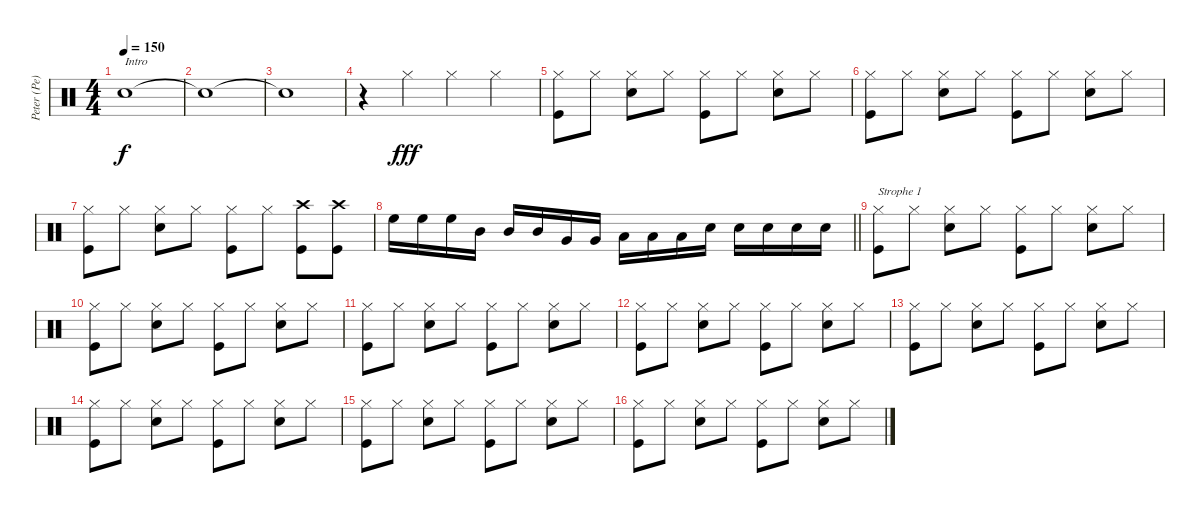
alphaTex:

\track ("Peter (Pe) Schorowsky" "Peter (Pe)") {instrument percussion}
\staff {score}
\articulation defaults
\ts (4 4)
\tempo 150
\clef neutral
\ks c "Snare (hit)".1{txt "Intro" dy f}
|
"Snare (hit)"{t}.1 |
"Snare (hit)"{t}.1 |
r.4 "Hi-Hat (closed)".4{dy fff} "Hi-Hat (closed)".4 "Hi-Hat (closed)".4 |
("Kick (hit)" "Hi-Hat (closed)").8 "Hi-Hat (closed)".8 ("Electric Snare (hit)" "Hi-Hat (closed)").8 "Hi-Hat (closed)".8 ("Kick (hit)" "Hi-Hat (closed)").8 "Hi-Hat (closed)".8 ("Electric Snare (hit)" "Hi-Hat (closed)").8 "Hi-Hat (closed)".8 |
("Kick (hit)" "Hi-Hat (closed)").8 "Hi-Hat (closed)".8 ("Electric Snare (hit)" "Hi-Hat (closed)").8 "Hi-Hat (closed)".8 ("Kick (hit)" "Hi-Hat (closed)").8 "Hi-Hat (closed)".8 ("Electric Snare (hit)" "Hi-Hat (closed)").8 "Hi-Hat (closed)".8 |
("Kick (hit)" "Hi-Hat (closed)").8 "Hi-Hat (closed)".8 ("Electric Snare (hit)" "Hi-Hat (closed)").8 "Hi-Hat (closed)".8 ("Kick (hit)" "Hi-Hat (closed)").8 "Hi-Hat (closed)".8 ("Crash high (hit)" "Kick (hit)").8 ("Crash high (hit)" "Kick (hit)").8 |
\barLineRight lightlight "High Floor Tom (hit)".16 "High Floor Tom (hit)".16 "High Floor Tom (hit)".16 "Mid Tom (hit)".16 "Mid Tom (hit)".16 "Mid Tom (hit)".16 "Very Low Tom (hit)".16 "Very Low Tom (hit)".16 "Low Floor Tom (hit)".16 "Low Floor Tom (hit)".16 "Low Floor Tom (hit)".16 "Electric Snare (hit)".16 "Electric Snare (hit)".16 "Electric Snare (hit)".16 "Electric Snare (hit)".16 "Electric Snare (hit)".16
|
("Kick (hit)" "Hi-Hat (closed)").8{txt "Strophe 1"} "Hi-Hat (closed)".8 ("Electric Snare (hit)" "Hi-Hat (closed)").8 "Hi-Hat (closed)".8 ("Kick (hit)" "Hi-Hat (closed)").8 "Hi-Hat (closed)".8 ("Electric Snare (hit)" "Hi-Hat (closed)").8 "Hi-Hat (closed)".8 |
("Kick (hit)" "Hi-Hat (closed)").8 "Hi-Hat (closed)".8 ("Electric Snare (hit)" "Hi-Hat (closed)").8 "Hi-Hat (closed)".8 ("Kick (hit)" "Hi-Hat (closed)").8 "Hi-Hat (closed)".8 ("Electric Snare (hit)" "Hi-Hat (closed)").8 "Hi-Hat (closed)".8 |
("Kick (hit)" "Hi-Hat (closed)").8 "Hi-Hat (closed)".8 ("Electric Snare (hit)" "Hi-Hat (closed)").8 "Hi-Hat (closed)".8 ("Kick (hit)" "Hi-Hat (closed)").8 "Hi-Hat (closed)".8 ("Electric Snare (hit)" "Hi-Hat (closed)").8 "Hi-Hat (closed)".8 |
("Kick (hit)" "Hi-Hat (closed)").8 "Hi-Hat (closed)".8 ("Electric Snare (hit)" "Hi-Hat (closed)").8 "Hi-Hat (closed)".8 ("Kick (hit)" "Hi-Hat (closed)").8 "Hi-Hat (closed)".8 ("Electric Snare (hit)" "Hi-Hat (closed)").8 "Hi-Hat (closed)".8 |
("Kick (hit)" "Hi-Hat (closed)").8 "Hi-Hat (closed)".8 ("Electric Snare (hit)" "Hi-Hat (closed)").8 "Hi-Hat (closed)".8 ("Kick (hit)" "Hi-Hat (closed)").8 "Hi-Hat (closed)".8 ("Electric Snare (hit)" "Hi-Hat (closed)").8 "Hi-Hat (closed)".8 |
("Kick (hit)" "Hi-Hat (closed)").8 "Hi-Hat (closed)".8 ("Electric Snare (hit)" "Hi-Hat (closed)").8 "Hi-Hat (closed)".8 ("Kick (hit)" "Hi-Hat (closed)").8 "Hi-Hat (closed)".8 ("Electric Snare (hit)" "Hi-Hat (closed)").8 "Hi-Hat (closed)".8 |
("Kick (hit)" "Hi-Hat (closed)").8 "Hi-Hat (closed)".8 ("Electric Snare (hit)" "Hi-Hat (closed)").8 "Hi-Hat (closed)".8 ("Kick (hit)" "Hi-Hat (closed)").8 "Hi-Hat (closed)".8 ("Electric Snare (hit)" "Hi-Hat (closed)").8 "Hi-Hat (closed)".8 |
("Kick (hit)" "Hi-Hat (closed)").8 "Hi-Hat (closed)".8 ("Electric Snare (hit)" "Hi-Hat (closed)").8 "Hi-Hat (closed)".8 ("Kick (hit)" "Hi-Hat (closed)").8 "Hi-Hat (closed)".8 ("Electric Snare (hit)" "Hi-Hat (closed)").8 "Hi-Hat (closed)".8
